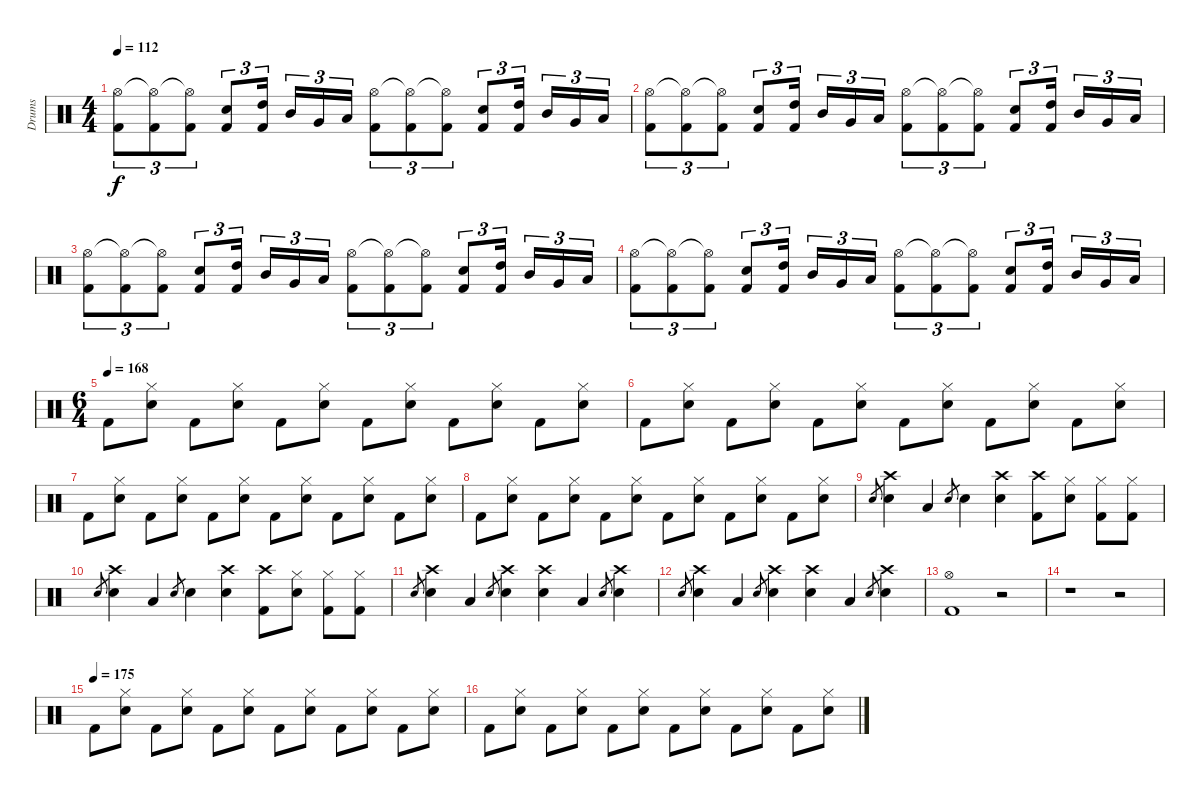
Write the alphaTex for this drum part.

\track ("Drums" "Drums") {instrument percussion}
\staff {score}
\articulation defaults
\ts (4 4)
\tempo 112
\clef neutral
\ks c
("Hi-Hat (open)" "Kick (hit) 2").8{tu (3 2) dy f} ("Hi-Hat (open)"{t} "Kick (hit) 2").8{tu (3 2)} ("Hi-Hat (open)"{t} "Kick (hit) 2").8{tu (3 2)} ("Snare (hit) 2" "Kick (hit) 2").8{tu (3 2)} ("High Tom (hit)" "Kick (hit) 2").16{tu (3 2) beam splitsecondary} "Mid Tom (hit)".16{tu (3 2)} "Very Low Tom (hit)".16{tu (3 2)} "Low Floor Tom (hit)".16{tu (3 2)} ("Hi-Hat (open)" "Kick (hit) 2").8{tu (3 2)} ("Hi-Hat (open)"{t} "Kick (hit) 2").8{tu (3 2)} ("Hi-Hat (open)"{t} "Kick (hit) 2").8{tu (3 2)} ("Snare (hit) 2" "Kick (hit) 2").8{tu (3 2)} ("High Tom (hit)" "Kick (hit) 2").16{tu (3 2) beam splitsecondary} "Mid Tom (hit)".16{tu (3 2)} "Very Low Tom (hit)".16{tu (3 2)} "Low Floor Tom (hit)".16{tu (3 2)} |
("Hi-Hat (open)" "Kick (hit) 2").8{tu (3 2)} ("Hi-Hat (open)"{t} "Kick (hit) 2").8{tu (3 2)} ("Hi-Hat (open)"{t} "Kick (hit) 2").8{tu (3 2)} ("Snare (hit) 2" "Kick (hit) 2").8{tu (3 2)} ("High Tom (hit)" "Kick (hit) 2").16{tu (3 2) beam splitsecondary} "Mid Tom (hit)".16{tu (3 2)} "Very Low Tom (hit)".16{tu (3 2)} "Low Floor Tom (hit)".16{tu (3 2)} ("Hi-Hat (open)" "Kick (hit) 2").8{tu (3 2)} ("Hi-Hat (open)"{t} "Kick (hit) 2").8{tu (3 2)} ("Hi-Hat (open)"{t} "Kick (hit) 2").8{tu (3 2)} ("Snare (hit) 2" "Kick (hit) 2").8{tu (3 2)} ("High Tom (hit)" "Kick (hit) 2").16{tu (3 2) beam splitsecondary} "Mid Tom (hit)".16{tu (3 2)} "Very Low Tom (hit)".16{tu (3 2)} "Low Floor Tom (hit)".16{tu (3 2)} |
("Hi-Hat (open)" "Kick (hit) 2").8{tu (3 2)} ("Hi-Hat (open)"{t} "Kick (hit) 2").8{tu (3 2)} ("Hi-Hat (open)"{t} "Kick (hit) 2").8{tu (3 2)} ("Snare (hit) 2" "Kick (hit) 2").8{tu (3 2)} ("High Tom (hit)" "Kick (hit) 2").16{tu (3 2) beam splitsecondary} "Mid Tom (hit)".16{tu (3 2)} "Very Low Tom (hit)".16{tu (3 2)} "Low Floor Tom (hit)".16{tu (3 2)} ("Hi-Hat (open)" "Kick (hit) 2").8{tu (3 2)} ("Hi-Hat (open)"{t} "Kick (hit) 2").8{tu (3 2)} ("Hi-Hat (open)"{t} "Kick (hit) 2").8{tu (3 2)} ("Snare (hit) 2" "Kick (hit) 2").8{tu (3 2)} ("High Tom (hit)" "Kick (hit) 2").16{tu (3 2) beam splitsecondary} "Mid Tom (hit)".16{tu (3 2)} "Very Low Tom (hit)".16{tu (3 2)} "Low Floor Tom (hit)".16{tu (3 2)} |
("Hi-Hat (open)" "Kick (hit) 2").8{tu (3 2)} ("Hi-Hat (open)"{t} "Kick (hit) 2").8{tu (3 2)} ("Hi-Hat (open)"{t} "Kick (hit) 2").8{tu (3 2)} ("Snare (hit) 2" "Kick (hit) 2").8{tu (3 2)} ("High Tom (hit)" "Kick (hit) 2").16{tu (3 2) beam splitsecondary} "Mid Tom (hit)".16{tu (3 2)} "Very Low Tom (hit)".16{tu (3 2)} "Low Floor Tom (hit)".16{tu (3 2)} ("Hi-Hat (open)" "Kick (hit) 2").8{tu (3 2)} ("Hi-Hat (open)"{t} "Kick (hit) 2").8{tu (3 2)} ("Hi-Hat (open)"{t} "Kick (hit) 2").8{tu (3 2)} ("Snare (hit) 2" "Kick (hit) 2").8{tu (3 2)} ("High Tom (hit)" "Kick (hit) 2").16{tu (3 2) beam splitsecondary} "Mid Tom (hit)".16{tu (3 2)} "Very Low Tom (hit)".16{tu (3 2)} "Low Floor Tom (hit)".16{tu (3 2)} |
\ts (6 4)
\tempo (168)
"Kick (hit) 2".8 ("Hi-Hat (closed)" "Snare (hit) 2").8 "Kick (hit) 2".8 ("Hi-Hat (closed)" "Snare (hit) 2").8 "Kick (hit) 2".8 ("Hi-Hat (closed)" "Snare (hit) 2").8 "Kick (hit) 2".8 ("Hi-Hat (closed)" "Snare (hit) 2").8 "Kick (hit) 2".8 ("Hi-Hat (closed)" "Snare (hit) 2").8 "Kick (hit) 2".8 ("Hi-Hat (closed)" "Snare (hit) 2").8 |
"Kick (hit) 2".8 ("Hi-Hat (closed)" "Snare (hit) 2").8 "Kick (hit) 2".8 ("Hi-Hat (closed)" "Snare (hit) 2").8 "Kick (hit) 2".8 ("Hi-Hat (closed)" "Snare (hit) 2").8 "Kick (hit) 2".8 ("Hi-Hat (closed)" "Snare (hit) 2").8 "Kick (hit) 2".8 ("Hi-Hat (closed)" "Snare (hit) 2").8 "Kick (hit) 2".8 ("Hi-Hat (closed)" "Snare (hit) 2").8 |
"Kick (hit) 2".8 ("Hi-Hat (closed)" "Snare (hit) 2").8 "Kick (hit) 2".8 ("Hi-Hat (closed)" "Snare (hit) 2").8 "Kick (hit) 2".8 ("Hi-Hat (closed)" "Snare (hit) 2").8 "Kick (hit) 2".8 ("Hi-Hat (closed)" "Snare (hit) 2").8 "Kick (hit) 2".8 ("Hi-Hat (closed)" "Snare (hit) 2").8 "Kick (hit) 2".8 ("Hi-Hat (closed)" "Snare (hit) 2").8 |
"Kick (hit) 2".8 ("Hi-Hat (closed)" "Snare (hit) 2").8 "Kick (hit) 2".8 ("Hi-Hat (closed)" "Snare (hit) 2").8 "Kick (hit) 2".8 ("Hi-Hat (closed)" "Snare (hit) 2").8 "Kick (hit) 2".8 ("Hi-Hat (closed)" "Snare (hit) 2").8 "Kick (hit) 2".8 ("Hi-Hat (closed)" "Snare (hit) 2").8 "Kick (hit) 2".8 ("Hi-Hat (closed)" "Snare (hit) 2").8 |
"Snare (hit) 2".8{gr} ("Crash high (hit)" "Snare (hit) 2").4 "Low Floor Tom (hit)".4 "Snare (hit) 2".8{gr} "Snare (hit) 2".4 ("Crash high (hit)" "Snare (hit) 2").4 ("Crash high (hit)" "Kick (hit) 2").8 ("Hi-Hat (closed)" "Snare (hit) 2").8 ("Hi-Hat (closed)" "Kick (hit) 2").8 ("Hi-Hat (closed)" "Kick (hit) 2").8 |
"Snare (hit) 2".8{gr} ("Crash high (hit)" "Snare (hit) 2").4 "Low Floor Tom (hit)".4 "Snare (hit) 2".8{gr} "Snare (hit) 2".4 ("Crash high (hit)" "Snare (hit) 2").4 ("Crash high (hit)" "Kick (hit) 2").8 ("Hi-Hat (closed)" "Snare (hit) 2").8 ("Hi-Hat (closed)" "Kick (hit) 2").8 ("Hi-Hat (closed)" "Kick (hit) 2").8 |
"Snare (hit) 2".8{gr} ("Crash high (hit)" "Snare (hit) 2").4 "Low Floor Tom (hit)".4 "Snare (hit) 2".8{gr} ("Crash high (hit)" "Snare (hit) 2").4 ("Crash high (hit)" "Snare (hit) 2").4 "Low Floor Tom (hit)".4 "Snare (hit) 2".8{gr} ("Crash high (hit)" "Snare (hit) 2").4 |
"Snare (hit) 2".8{gr} ("Crash high (hit)" "Snare (hit) 2").4 "Low Floor Tom (hit)".4 "Snare (hit) 2".8{gr} ("Crash high (hit)" "Snare (hit) 2").4 ("Crash high (hit)" "Snare (hit) 2").4 "Low Floor Tom (hit)".4 "Snare (hit) 2".8{gr} ("Crash high (hit)" "Snare (hit) 2").4 |
("Hi-Hat (open)" "Kick (hit) 2").1 r.2 |
r.1 r.2 |
\tempo (175)
"Kick (hit) 2".8 ("Hi-Hat (closed)" "Snare (hit) 2").8 "Kick (hit) 2".8 ("Hi-Hat (closed)" "Snare (hit) 2").8 "Kick (hit) 2".8 ("Hi-Hat (closed)" "Snare (hit) 2").8 "Kick (hit) 2".8 ("Hi-Hat (closed)" "Snare (hit) 2").8 "Kick (hit) 2".8 ("Hi-Hat (closed)" "Snare (hit) 2").8 "Kick (hit) 2".8 ("Hi-Hat (closed)" "Snare (hit) 2").8 |
"Kick (hit) 2".8 ("Hi-Hat (closed)" "Snare (hit) 2").8 "Kick (hit) 2".8 ("Hi-Hat (closed)" "Snare (hit) 2").8 "Kick (hit) 2".8 ("Hi-Hat (closed)" "Snare (hit) 2").8 "Kick (hit) 2".8 ("Hi-Hat (closed)" "Snare (hit) 2").8 "Kick (hit) 2".8 ("Hi-Hat (closed)" "Snare (hit) 2").8 "Kick (hit) 2".8 ("Hi-Hat (closed)" "Snare (hit) 2").8
